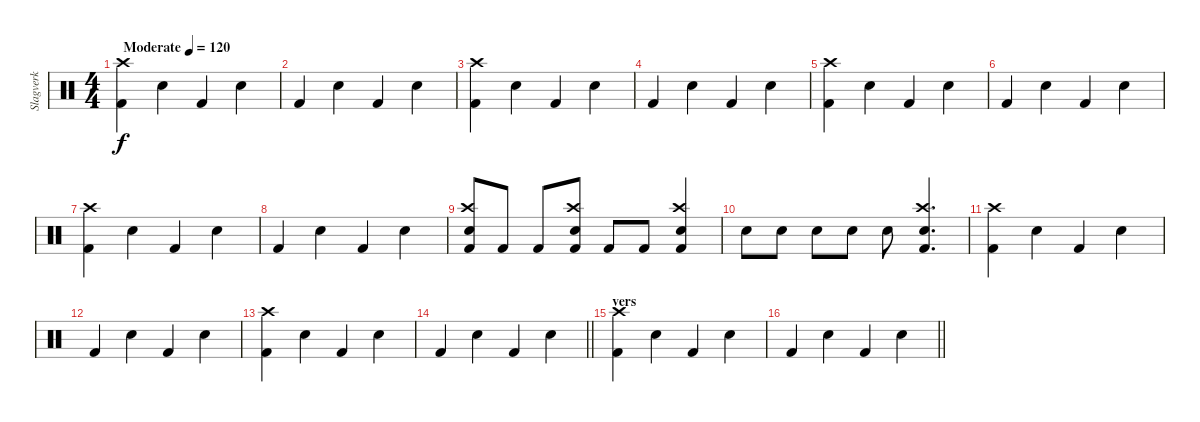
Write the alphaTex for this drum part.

\track ("Slagverk" "Slagverk") {instrument percussion}
\staff {score}
\articulation defaults
\ts (4 4)
\tempo (120 "Moderate")
\clef neutral
\ks c
("Kick (hit) 2" "Crash high (hit)").4{dy f} "Snare (hit) 2".4 "Kick (hit) 2".4 "Snare (hit) 2".4 |
"Kick (hit) 2".4 "Snare (hit) 2".4 "Kick (hit) 2".4 "Snare (hit) 2".4 |
("Kick (hit) 2" "Crash high (hit)").4 "Snare (hit) 2".4 "Kick (hit) 2".4 "Snare (hit) 2".4 |
"Kick (hit) 2".4 "Snare (hit) 2".4 "Kick (hit) 2".4 "Snare (hit) 2".4 |
("Kick (hit) 2" "Crash high (hit)").4 "Snare (hit) 2".4 "Kick (hit) 2".4 "Snare (hit) 2".4 |
"Kick (hit) 2".4 "Snare (hit) 2".4 "Kick (hit) 2".4 "Snare (hit) 2".4 |
("Kick (hit) 2" "Crash high (hit)").4 "Snare (hit) 2".4 "Kick (hit) 2".4 "Snare (hit) 2".4 |
"Kick (hit) 2".4 "Snare (hit) 2".4 "Kick (hit) 2".4 "Snare (hit) 2".4 |
("Snare (hit) 2" "Crash high (hit)" "Kick (hit) 2").8 "Kick (hit) 2".8 "Kick (hit) 2".8 ("Snare (hit) 2" "Crash high (hit)" "Kick (hit) 2").8 "Kick (hit) 2".8 "Kick (hit) 2".8 ("Snare (hit) 2" "Crash high (hit)" "Kick (hit) 2").4 |
"Snare (hit) 2".8 "Snare (hit) 2".8 "Snare (hit) 2".8 "Snare (hit) 2".8 "Snare (hit) 2".8 ("Snare (hit) 2" "Kick (hit) 2" "Crash high (hit)").4{d} |
("Kick (hit) 2" "Crash high (hit)").4 "Snare (hit) 2".4 "Kick (hit) 2".4 "Snare (hit) 2".4 |
"Kick (hit) 2".4 "Snare (hit) 2".4 "Kick (hit) 2".4 "Snare (hit) 2".4 |
("Kick (hit) 2" "Crash high (hit)").4 "Snare (hit) 2".4 "Kick (hit) 2".4 "Snare (hit) 2".4 |
\barLineRight lightlight "Kick (hit) 2".4 "Snare (hit) 2".4 "Kick (hit) 2".4 "Snare (hit) 2".4
|
\section ("" "vers")
("Kick (hit) 2" "Crash high (hit)").4 "Snare (hit) 2".4 "Kick (hit) 2".4 "Snare (hit) 2".4 |
\barLineRight lightlight "Kick (hit) 2".4 "Snare (hit) 2".4 "Kick (hit) 2".4 "Snare (hit) 2".4
